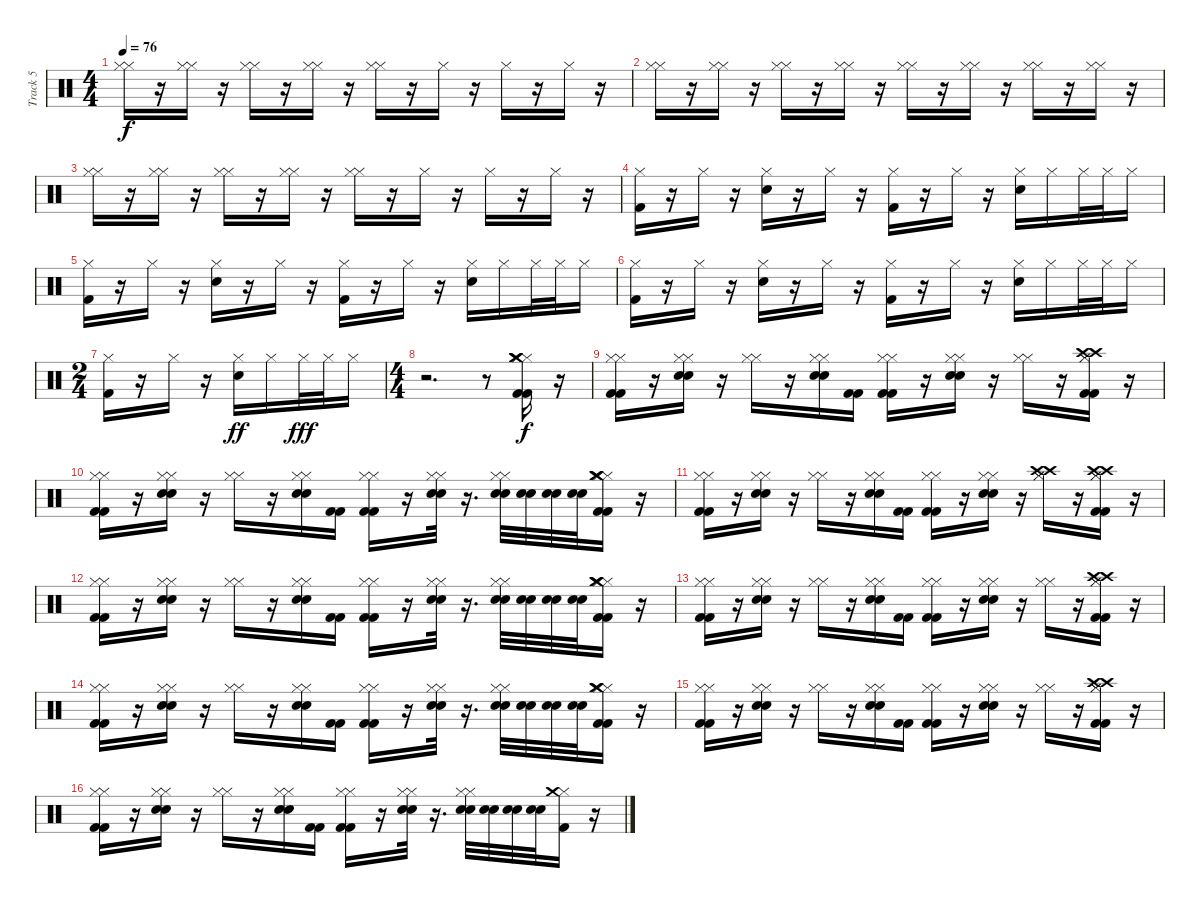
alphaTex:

\track ("Track 5" "Track 5") {instrument percussion}
\staff {score}
\articulation defaults
\ts (4 4)
\tempo 76
\clef neutral
\ks c
("Hi-Hat (closed)" "Hi-Hat (closed)").16{dy f} r.16 ("Hi-Hat (closed)" "Hi-Hat (closed)").16 r.16 ("Hi-Hat (closed)" "Hi-Hat (closed)").16 r.16 ("Hi-Hat (closed)" "Hi-Hat (closed)").16 r.16 ("Hi-Hat (closed)" "Hi-Hat (closed)").16 r.16 "Hi-Hat (closed)".16 r.16 "Hi-Hat (closed)".16 r.16 "Hi-Hat (closed)".16 r.16 |
("Hi-Hat (closed)" "Hi-Hat (closed)").16 r.16 ("Hi-Hat (closed)" "Hi-Hat (closed)").16 r.16 ("Hi-Hat (closed)" "Hi-Hat (closed)").16 r.16 ("Hi-Hat (closed)" "Hi-Hat (closed)").16 r.16 ("Hi-Hat (closed)" "Hi-Hat (closed)").16 r.16 ("Hi-Hat (closed)" "Hi-Hat (closed)").16 r.16 ("Hi-Hat (closed)" "Hi-Hat (closed)").16 r.16 ("Hi-Hat (closed)" "Hi-Hat (closed)").16 r.16 |
("Hi-Hat (closed)" "Hi-Hat (closed)").16 r.16 ("Hi-Hat (closed)" "Hi-Hat (closed)").16 r.16 ("Hi-Hat (closed)" "Hi-Hat (closed)").16 r.16 ("Hi-Hat (closed)" "Hi-Hat (closed)").16 r.16 ("Hi-Hat (closed)" "Hi-Hat (closed)").16 r.16 "Hi-Hat (closed)".16 r.16 "Hi-Hat (closed)".16 r.16 "Hi-Hat (closed)".16 r.16 |
("Kick (hit) 2" "Hi-Hat (closed)").16 r.16 "Hi-Hat (closed)".16 r.16 ("Hi-Hat (closed)" "Electric Snare (hit)").16 r.16 "Hi-Hat (closed)".16 r.16 ("Kick (hit) 2" "Hi-Hat (closed)").16 r.16 "Hi-Hat (closed)".16 r.16 ("Electric Snare (hit)" "Hi-Hat (closed)").16 "Hi-Hat (closed)".16 "Hi-Hat (closed)".32 "Hi-Hat (closed)".32 "Hi-Hat (closed)".16 |
("Kick (hit) 2" "Hi-Hat (closed)").16 r.16 "Hi-Hat (closed)".16 r.16 ("Hi-Hat (closed)" "Electric Snare (hit)").16 r.16 "Hi-Hat (closed)".16 r.16 ("Kick (hit) 2" "Hi-Hat (closed)").16 r.16 "Hi-Hat (closed)".16 r.16 ("Electric Snare (hit)" "Hi-Hat (closed)").16 "Hi-Hat (closed)".16 "Hi-Hat (closed)".32 "Hi-Hat (closed)".32 "Hi-Hat (closed)".16 |
("Hi-Hat (closed)" "Kick (hit) 2").16 r.16 "Hi-Hat (closed)".16 r.16 ("Electric Snare (hit)" "Hi-Hat (closed)").16 r.16 "Hi-Hat (closed)".16 r.16 ("Hi-Hat (closed)" "Kick (hit) 2").16 r.16 "Hi-Hat (closed)".16 r.16 ("Electric Snare (hit)" "Hi-Hat (closed)").16 "Hi-Hat (closed)".16 "Hi-Hat (closed)".32 "Hi-Hat (closed)".32 "Hi-Hat (closed)".16 |
\ts (2 4)
("Kick (hit) 2" "Hi-Hat (closed)").16 r.16 "Hi-Hat (closed)".16 r.16 ("Hi-Hat (closed)" "Electric Snare (hit)").16{dy ff} "Hi-Hat (closed)".16 "Hi-Hat (closed)".32{dy fff} "Hi-Hat (closed)".32 "Hi-Hat (closed)".16 |
\ts (4 4)
r.2{d} r.8 ("Kick (hit) 2" "Hi-Hat (closed)" "Crash medium (hit)" "Kick (hit) 2" "Hi-Hat (closed)" "Crash medium (hit)").16{dy f} r.16 |
("Kick (hit) 2" "Hi-Hat (closed)" "Kick (hit) 2" "Hi-Hat (closed)").16 r.16 ("Electric Snare (hit)" "Hi-Hat (closed)" "Electric Snare (hit)" "Hi-Hat (closed)").16 r.16 ("Hi-Hat (closed)" "Hi-Hat (closed)").16 r.16 ("Hi-Hat (closed)" "Electric Snare (hit)" "Hi-Hat (closed)" "Electric Snare (hit)").16 ("Kick (hit) 2" "Kick (hit) 2").16 ("Hi-Hat (closed)" "Kick (hit) 2" "Hi-Hat (closed)" "Kick (hit) 2").16 r.16 ("Electric Snare (hit)" "Hi-Hat (closed)" "Electric Snare (hit)" "Hi-Hat (closed)").16 r.16 ("Hi-Hat (closed)" "Hi-Hat (closed)").16 r.16 ("Hi-Hat (closed)" "Kick (hit) 2" "Crash high (hit)" "Hi-Hat (closed)" "Kick (hit) 2" "Crash high (hit)").16 r.16 |
("Hi-Hat (closed)" "Kick (hit) 2" "Hi-Hat (closed)" "Kick (hit) 2").16 r.16 ("Hi-Hat (closed)" "Electric Snare (hit)" "Hi-Hat (closed)" "Electric Snare (hit)").16 r.16 ("Hi-Hat (closed)" "Hi-Hat (closed)").16 r.16 ("Hi-Hat (closed)" "Electric Snare (hit)" "Hi-Hat (closed)" "Electric Snare (hit)").16 ("Kick (hit) 2" "Kick (hit) 2").16 ("Hi-Hat (closed)" "Kick (hit) 2" "Hi-Hat (closed)" "Kick (hit) 2").16 r.16 ("Hi-Hat (closed)" "Electric Snare (hit)" "Hi-Hat (closed)" "Electric Snare (hit)").32 r.16{d} ("Hi-Hat (closed)" "Electric Snare (hit)" "Hi-Hat (closed)" "Electric Snare (hit)").32 ("Electric Snare (hit)" "Electric Snare (hit)").32 ("Electric Snare (hit)" "Electric Snare (hit)").32 ("Electric Snare (hit)" "Electric Snare (hit)").32 ("Hi-Hat (closed)" "Kick (hit) 2" "Crash medium (hit)" "Hi-Hat (closed)" "Kick (hit) 2" "Crash medium (hit)").16 r.16 |
("Hi-Hat (closed)" "Kick (hit) 2" "Hi-Hat (closed)" "Kick (hit) 2").16 r.16 ("Hi-Hat (closed)" "Electric Snare (hit)" "Hi-Hat (closed)" "Electric Snare (hit)").16 r.16 ("Hi-Hat (closed)" "Hi-Hat (closed)").16 r.16 ("Hi-Hat (closed)" "Electric Snare (hit)" "Hi-Hat (closed)" "Electric Snare (hit)").16 ("Kick (hit) 2" "Kick (hit) 2").16 ("Hi-Hat (closed)" "Kick (hit) 2" "Hi-Hat (closed)" "Kick (hit) 2").16 r.16 ("Hi-Hat (closed)" "Electric Snare (hit)" "Hi-Hat (closed)" "Electric Snare (hit)").16 r.16 ("Hi-Hat (closed)" "Crash high (hit)" "Hi-Hat (closed)" "Crash high (hit)").16 r.16 ("Hi-Hat (closed)" "Kick (hit) 2" "Crash high (hit)" "Hi-Hat (closed)" "Kick (hit) 2" "Crash high (hit)").16 r.16 |
("Hi-Hat (closed)" "Kick (hit) 2" "Hi-Hat (closed)" "Kick (hit) 2").16 r.16 ("Hi-Hat (closed)" "Electric Snare (hit)" "Hi-Hat (closed)" "Electric Snare (hit)").16 r.16 ("Hi-Hat (closed)" "Hi-Hat (closed)").16 r.16 ("Hi-Hat (closed)" "Electric Snare (hit)" "Hi-Hat (closed)" "Electric Snare (hit)").16 ("Kick (hit) 2" "Kick (hit) 2").16 ("Hi-Hat (closed)" "Kick (hit) 2" "Hi-Hat (closed)" "Kick (hit) 2").16 r.16 ("Hi-Hat (closed)" "Electric Snare (hit)" "Hi-Hat (closed)" "Electric Snare (hit)").32 r.16{d} ("Hi-Hat (closed)" "Electric Snare (hit)" "Hi-Hat (closed)" "Electric Snare (hit)").32 ("Electric Snare (hit)" "Electric Snare (hit)").32 ("Electric Snare (hit)" "Electric Snare (hit)").32 ("Electric Snare (hit)" "Electric Snare (hit)").32 ("Hi-Hat (closed)" "Kick (hit) 2" "Crash medium (hit)" "Hi-Hat (closed)" "Kick (hit) 2" "Crash medium (hit)").16 r.16 |
("Kick (hit) 2" "Hi-Hat (closed)" "Kick (hit) 2" "Hi-Hat (closed)").16 r.16 ("Electric Snare (hit)" "Hi-Hat (closed)" "Electric Snare (hit)" "Hi-Hat (closed)").16 r.16 ("Hi-Hat (closed)" "Hi-Hat (closed)").16 r.16 ("Hi-Hat (closed)" "Electric Snare (hit)" "Hi-Hat (closed)" "Electric Snare (hit)").16 ("Kick (hit) 2" "Kick (hit) 2").16 ("Hi-Hat (closed)" "Kick (hit) 2" "Hi-Hat (closed)" "Kick (hit) 2").16 r.16 ("Electric Snare (hit)" "Hi-Hat (closed)" "Electric Snare (hit)" "Hi-Hat (closed)").16 r.16 ("Hi-Hat (closed)" "Hi-Hat (closed)").16 r.16 ("Hi-Hat (closed)" "Kick (hit) 2" "Crash high (hit)" "Hi-Hat (closed)" "Kick (hit) 2" "Crash high (hit)").16 r.16 |
("Hi-Hat (closed)" "Kick (hit) 2" "Hi-Hat (closed)" "Kick (hit) 2").16 r.16 ("Hi-Hat (closed)" "Electric Snare (hit)" "Hi-Hat (closed)" "Electric Snare (hit)").16 r.16 ("Hi-Hat (closed)" "Hi-Hat (closed)").16 r.16 ("Hi-Hat (closed)" "Electric Snare (hit)" "Hi-Hat (closed)" "Electric Snare (hit)").16 ("Kick (hit) 2" "Kick (hit) 2").16 ("Hi-Hat (closed)" "Kick (hit) 2" "Hi-Hat (closed)" "Kick (hit) 2").16 r.16 ("Hi-Hat (closed)" "Electric Snare (hit)" "Hi-Hat (closed)" "Electric Snare (hit)").32 r.16{d} ("Hi-Hat (closed)" "Electric Snare (hit)" "Hi-Hat (closed)" "Electric Snare (hit)").32 ("Electric Snare (hit)" "Electric Snare (hit)").32 ("Electric Snare (hit)" "Electric Snare (hit)").32 ("Electric Snare (hit)" "Electric Snare (hit)").32 ("Hi-Hat (closed)" "Kick (hit) 2" "Crash medium (hit)" "Hi-Hat (closed)" "Kick (hit) 2" "Crash medium (hit)").16 r.16 |
("Kick (hit) 2" "Hi-Hat (closed)" "Kick (hit) 2" "Hi-Hat (closed)").16 r.16 ("Electric Snare (hit)" "Hi-Hat (closed)" "Electric Snare (hit)" "Hi-Hat (closed)").16 r.16 ("Hi-Hat (closed)" "Hi-Hat (closed)").16 r.16 ("Hi-Hat (closed)" "Electric Snare (hit)" "Hi-Hat (closed)" "Electric Snare (hit)").16 ("Kick (hit) 2" "Kick (hit) 2").16 ("Hi-Hat (closed)" "Kick (hit) 2" "Hi-Hat (closed)" "Kick (hit) 2").16 r.16 ("Electric Snare (hit)" "Hi-Hat (closed)" "Electric Snare (hit)" "Hi-Hat (closed)").16 r.16 ("Hi-Hat (closed)" "Hi-Hat (closed)").16 r.16 ("Hi-Hat (closed)" "Kick (hit) 2" "Crash high (hit)" "Hi-Hat (closed)" "Kick (hit) 2" "Crash high (hit)").16 r.16 |
("Hi-Hat (closed)" "Kick (hit) 2" "Hi-Hat (closed)" "Kick (hit) 2").16 r.16 ("Hi-Hat (closed)" "Electric Snare (hit)" "Hi-Hat (closed)" "Electric Snare (hit)").16 r.16 ("Hi-Hat (closed)" "Hi-Hat (closed)").16 r.16 ("Hi-Hat (closed)" "Electric Snare (hit)" "Hi-Hat (closed)" "Electric Snare (hit)").16 ("Kick (hit) 2" "Kick (hit) 2").16 ("Hi-Hat (closed)" "Kick (hit) 2" "Hi-Hat (closed)" "Kick (hit) 2").16 r.16 ("Hi-Hat (closed)" "Electric Snare (hit)" "Hi-Hat (closed)" "Electric Snare (hit)").32 r.16{d} ("Hi-Hat (closed)" "Electric Snare (hit)" "Hi-Hat (closed)" "Electric Snare (hit)").32 ("Electric Snare (hit)" "Electric Snare (hit)").32 ("Electric Snare (hit)" "Electric Snare (hit)").32 ("Electric Snare (hit)" "Electric Snare (hit)").32 ("Kick (hit) 2" "Hi-Hat (closed)" "Crash medium (hit)").16 r.16
